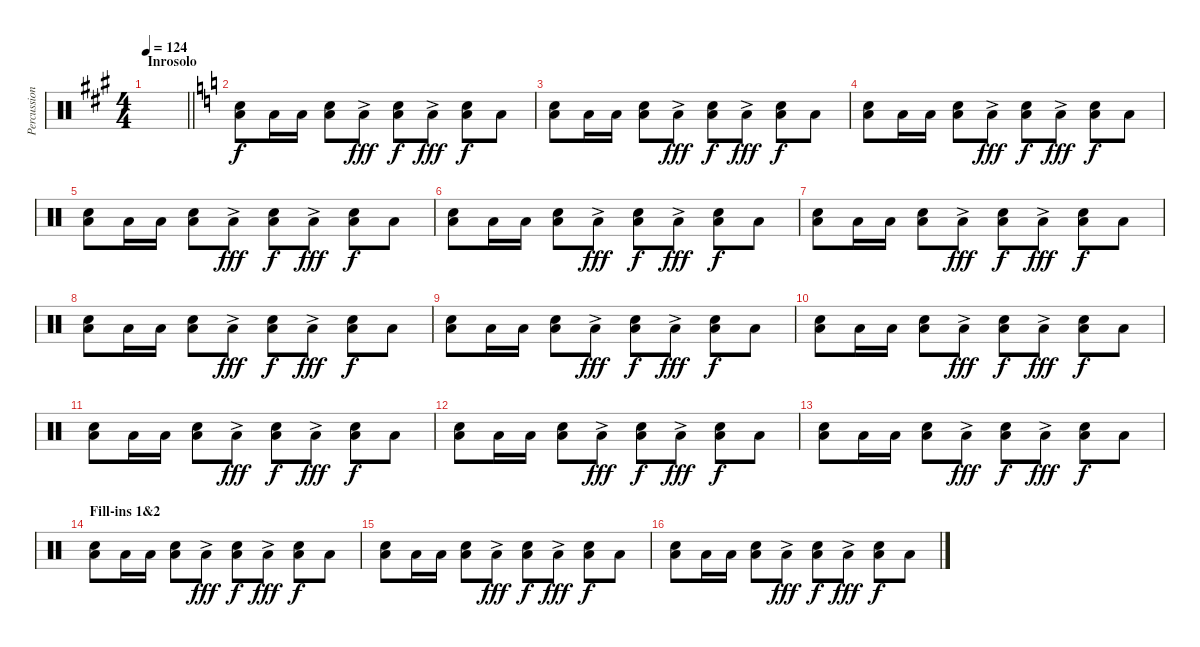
\track ("Percussion" "Percussion") {instrument percussion}
\staff {score}
\articulation defaults
\ts (4 4)
\section ("" "Inrosolo")
\tempo 124
\clef neutral
\barLineRight lightlight
\ks a
|
\ks c
("Low Floor Tom (hit)" "Snare (hit) 2").8 "Low Floor Tom (hit)".16 "Low Floor Tom (hit)".16 ("Low Floor Tom (hit)" "Snare (hit) 2").8 "Low Floor Tom (hit)"{ac}.8{dy fff} ("Low Floor Tom (hit)" "Snare (hit) 2").8{dy f} "Low Floor Tom (hit)"{ac}.8{dy fff} ("Low Floor Tom (hit)" "Snare (hit) 2").8{dy f} "Low Floor Tom (hit)".8 |
("Low Floor Tom (hit)" "Snare (hit) 2").8 "Low Floor Tom (hit)".16 "Low Floor Tom (hit)".16 ("Low Floor Tom (hit)" "Snare (hit) 2").8 "Low Floor Tom (hit)"{ac}.8{dy fff} ("Low Floor Tom (hit)" "Snare (hit) 2").8{dy f} "Low Floor Tom (hit)"{ac}.8{dy fff} ("Low Floor Tom (hit)" "Snare (hit) 2").8{dy f} "Low Floor Tom (hit)".8 |
("Low Floor Tom (hit)" "Snare (hit) 2").8 "Low Floor Tom (hit)".16 "Low Floor Tom (hit)".16 ("Low Floor Tom (hit)" "Snare (hit) 2").8 "Low Floor Tom (hit)"{ac}.8{dy fff} ("Low Floor Tom (hit)" "Snare (hit) 2").8{dy f} "Low Floor Tom (hit)"{ac}.8{dy fff} ("Low Floor Tom (hit)" "Snare (hit) 2").8{dy f} "Low Floor Tom (hit)".8 |
("Low Floor Tom (hit)" "Snare (hit) 2").8 "Low Floor Tom (hit)".16 "Low Floor Tom (hit)".16 ("Low Floor Tom (hit)" "Snare (hit) 2").8 "Low Floor Tom (hit)"{ac}.8{dy fff} ("Low Floor Tom (hit)" "Snare (hit) 2").8{dy f} "Low Floor Tom (hit)"{ac}.8{dy fff} ("Low Floor Tom (hit)" "Snare (hit) 2").8{dy f} "Low Floor Tom (hit)".8 |
("Low Floor Tom (hit)" "Snare (hit) 2").8 "Low Floor Tom (hit)".16 "Low Floor Tom (hit)".16 ("Low Floor Tom (hit)" "Snare (hit) 2").8 "Low Floor Tom (hit)"{ac}.8{dy fff} ("Low Floor Tom (hit)" "Snare (hit) 2").8{dy f} "Low Floor Tom (hit)"{ac}.8{dy fff} ("Low Floor Tom (hit)" "Snare (hit) 2").8{dy f} "Low Floor Tom (hit)".8 |
("Low Floor Tom (hit)" "Snare (hit) 2").8 "Low Floor Tom (hit)".16 "Low Floor Tom (hit)".16 ("Low Floor Tom (hit)" "Snare (hit) 2").8 "Low Floor Tom (hit)"{ac}.8{dy fff} ("Low Floor Tom (hit)" "Snare (hit) 2").8{dy f} "Low Floor Tom (hit)"{ac}.8{dy fff} ("Low Floor Tom (hit)" "Snare (hit) 2").8{dy f} "Low Floor Tom (hit)".8 |
("Low Floor Tom (hit)" "Snare (hit) 2").8 "Low Floor Tom (hit)".16 "Low Floor Tom (hit)".16 ("Low Floor Tom (hit)" "Snare (hit) 2").8 "Low Floor Tom (hit)"{ac}.8{dy fff} ("Low Floor Tom (hit)" "Snare (hit) 2").8{dy f} "Low Floor Tom (hit)"{ac}.8{dy fff} ("Low Floor Tom (hit)" "Snare (hit) 2").8{dy f} "Low Floor Tom (hit)".8 |
("Low Floor Tom (hit)" "Snare (hit) 2").8 "Low Floor Tom (hit)".16 "Low Floor Tom (hit)".16 ("Low Floor Tom (hit)" "Snare (hit) 2").8 "Low Floor Tom (hit)"{ac}.8{dy fff} ("Low Floor Tom (hit)" "Snare (hit) 2").8{dy f} "Low Floor Tom (hit)"{ac}.8{dy fff} ("Low Floor Tom (hit)" "Snare (hit) 2").8{dy f} "Low Floor Tom (hit)".8 |
("Low Floor Tom (hit)" "Snare (hit) 2").8 "Low Floor Tom (hit)".16 "Low Floor Tom (hit)".16 ("Low Floor Tom (hit)" "Snare (hit) 2").8 "Low Floor Tom (hit)"{ac}.8{dy fff} ("Low Floor Tom (hit)" "Snare (hit) 2").8{dy f} "Low Floor Tom (hit)"{ac}.8{dy fff} ("Low Floor Tom (hit)" "Snare (hit) 2").8{dy f} "Low Floor Tom (hit)".8 |
("Low Floor Tom (hit)" "Snare (hit) 2").8 "Low Floor Tom (hit)".16 "Low Floor Tom (hit)".16 ("Low Floor Tom (hit)" "Snare (hit) 2").8 "Low Floor Tom (hit)"{ac}.8{dy fff} ("Low Floor Tom (hit)" "Snare (hit) 2").8{dy f} "Low Floor Tom (hit)"{ac}.8{dy fff} ("Low Floor Tom (hit)" "Snare (hit) 2").8{dy f} "Low Floor Tom (hit)".8 |
("Low Floor Tom (hit)" "Snare (hit) 2").8 "Low Floor Tom (hit)".16 "Low Floor Tom (hit)".16 ("Low Floor Tom (hit)" "Snare (hit) 2").8 "Low Floor Tom (hit)"{ac}.8{dy fff} ("Low Floor Tom (hit)" "Snare (hit) 2").8{dy f} "Low Floor Tom (hit)"{ac}.8{dy fff} ("Low Floor Tom (hit)" "Snare (hit) 2").8{dy f} "Low Floor Tom (hit)".8 |
("Low Floor Tom (hit)" "Snare (hit) 2").8 "Low Floor Tom (hit)".16 "Low Floor Tom (hit)".16 ("Low Floor Tom (hit)" "Snare (hit) 2").8 "Low Floor Tom (hit)"{ac}.8{dy fff} ("Low Floor Tom (hit)" "Snare (hit) 2").8{dy f} "Low Floor Tom (hit)"{ac}.8{dy fff} ("Low Floor Tom (hit)" "Snare (hit) 2").8{dy f} "Low Floor Tom (hit)".8 |
\section ("" "Fill-ins 1&2")
("Low Floor Tom (hit)" "Snare (hit) 2").8 "Low Floor Tom (hit)".16 "Low Floor Tom (hit)".16 ("Low Floor Tom (hit)" "Snare (hit) 2").8 "Low Floor Tom (hit)"{ac}.8{dy fff} ("Low Floor Tom (hit)" "Snare (hit) 2").8{dy f} "Low Floor Tom (hit)"{ac}.8{dy fff} ("Low Floor Tom (hit)" "Snare (hit) 2").8{dy f} "Low Floor Tom (hit)".8 |
("Low Floor Tom (hit)" "Snare (hit) 2").8 "Low Floor Tom (hit)".16 "Low Floor Tom (hit)".16 ("Low Floor Tom (hit)" "Snare (hit) 2").8 "Low Floor Tom (hit)"{ac}.8{dy fff} ("Low Floor Tom (hit)" "Snare (hit) 2").8{dy f} "Low Floor Tom (hit)"{ac}.8{dy fff} ("Low Floor Tom (hit)" "Snare (hit) 2").8{dy f} "Low Floor Tom (hit)".8 |
("Low Floor Tom (hit)" "Snare (hit) 2").8 "Low Floor Tom (hit)".16 "Low Floor Tom (hit)".16 ("Low Floor Tom (hit)" "Snare (hit) 2").8 "Low Floor Tom (hit)"{ac}.8{dy fff} ("Low Floor Tom (hit)" "Snare (hit) 2").8{dy f} "Low Floor Tom (hit)"{ac}.8{dy fff} ("Low Floor Tom (hit)" "Snare (hit) 2").8{dy f} "Low Floor Tom (hit)".8
